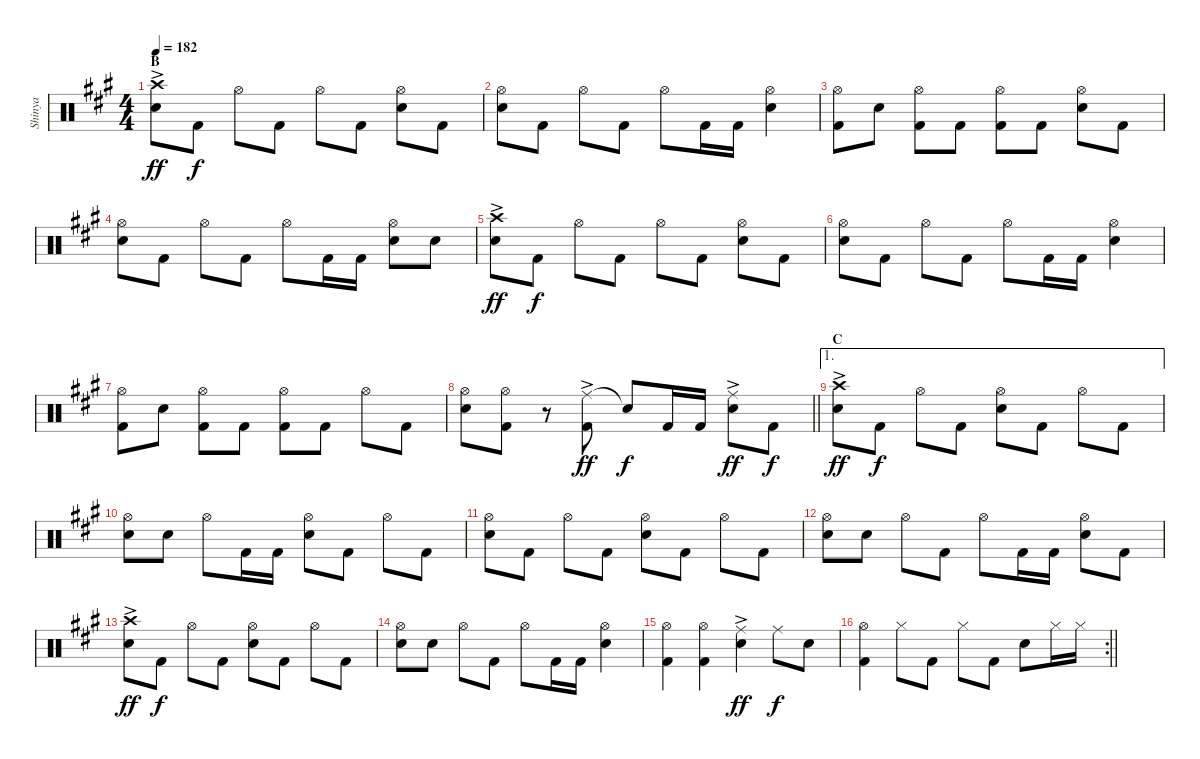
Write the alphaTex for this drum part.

\track ("Shinya" "Shinya") {instrument percussion}
\staff {score}
\articulation defaults
\ts (4 4)
\section ("" "B")
\tempo 182
\clef neutral
\ks a
("Crash high (hit)"{ac} "Snare (hit) 2").8{dy ff} "Kick (hit) 2".8{dy f} "Hi-Hat (open)".8 "Kick (hit) 2".8 "Hi-Hat (open)".8 "Kick (hit) 2".8 ("Hi-Hat (open)" "Snare (hit) 2").8 "Kick (hit) 2".8 |
("Hi-Hat (open)" "Snare (hit) 2").8 "Kick (hit) 2".8 "Hi-Hat (open)".8 "Kick (hit) 2".8 "Hi-Hat (open)".8 "Kick (hit) 2".16 "Kick (hit) 2".16 ("Hi-Hat (open)" "Snare (hit) 2").4 |
("Hi-Hat (open)" "Kick (hit) 2").8 "Snare (hit) 2".8 ("Hi-Hat (open)" "Kick (hit) 2").8 "Kick (hit) 2".8 ("Hi-Hat (open)" "Kick (hit) 2").8 "Kick (hit) 2".8 ("Hi-Hat (open)" "Snare (hit) 2").8 "Kick (hit) 2".8 |
("Hi-Hat (open)" "Snare (hit) 2").8 "Kick (hit) 2".8 "Hi-Hat (open)".8 "Kick (hit) 2".8 "Hi-Hat (open)".8 "Kick (hit) 2".16 "Kick (hit) 2".16 ("Hi-Hat (open)" "Snare (hit) 2").8 "Snare (hit) 2".8 |
("Crash high (hit)"{ac} "Snare (hit) 2").8{dy ff} "Kick (hit) 2".8{dy f} "Hi-Hat (open)".8 "Kick (hit) 2".8 "Hi-Hat (open)".8 "Kick (hit) 2".8 ("Hi-Hat (open)" "Snare (hit) 2").8 "Kick (hit) 2".8 |
("Hi-Hat (open)" "Snare (hit) 2").8 "Kick (hit) 2".8 "Hi-Hat (open)".8 "Kick (hit) 2".8 "Hi-Hat (open)".8 "Kick (hit) 2".16 "Kick (hit) 2".16 ("Hi-Hat (open)" "Snare (hit) 2").4 |
("Hi-Hat (open)" "Kick (hit) 2").8 "Snare (hit) 2".8 ("Hi-Hat (open)" "Kick (hit) 2").8 "Kick (hit) 2".8 ("Hi-Hat (open)" "Kick (hit) 2").8 "Kick (hit) 2".8 "Hi-Hat (open)".8 "Kick (hit) 2".8 |
\barLineRight lightlight
("Hi-Hat (open)" "Snare (hit) 2").8 ("Hi-Hat (open)" "Kick (hit) 2").8 r.8 ("Ride (middle)"{ac} "Kick (hit) 2").8{dy ff} "Snare (hit)"{t}.8{dy f} "Kick (hit) 2".16 "Kick (hit) 2".16 ("Ride (middle)"{ac} "Snare (hit) 2").8{dy ff} "Kick (hit) 2".8{dy f} |
\ae 1
\section ("" "C")
("Crash high (hit)"{ac} "Snare (hit) 2").8{dy ff} "Kick (hit) 2".8{dy f} "Hi-Hat (open)".8 "Kick (hit) 2".8 ("Hi-Hat (open)" "Snare (hit) 2").8 "Kick (hit) 2".8 "Hi-Hat (open)".8 "Kick (hit) 2".8 |
("Hi-Hat (open)" "Snare (hit) 2").8 "Snare (hit) 2".8 "Hi-Hat (open)".8 "Kick (hit) 2".16 "Kick (hit) 2".16 ("Hi-Hat (open)" "Snare (hit) 2").8 "Kick (hit) 2".8 "Hi-Hat (open)".8 "Kick (hit) 2".8 |
("Hi-Hat (open)" "Snare (hit) 2").8 "Kick (hit) 2".8 "Hi-Hat (open)".8 "Kick (hit) 2".8 ("Hi-Hat (open)" "Snare (hit) 2").8 "Kick (hit) 2".8 "Hi-Hat (open)".8 "Kick (hit) 2".8 |
("Hi-Hat (open)" "Snare (hit) 2").8 "Snare (hit) 2".8 "Hi-Hat (open)".8 "Kick (hit) 2".8 "Hi-Hat (open)".8 "Kick (hit) 2".16 "Kick (hit) 2".16 ("Hi-Hat (open)" "Snare (hit) 2").8 "Kick (hit) 2".8 |
("Crash high (hit)"{ac} "Snare (hit) 2").8{dy ff} "Kick (hit) 2".8{dy f} "Hi-Hat (open)".8 "Kick (hit) 2".8 ("Hi-Hat (open)" "Snare (hit) 2").8 "Kick (hit) 2".8 "Hi-Hat (open)".8 "Kick (hit) 2".8 |
("Hi-Hat (open)" "Snare (hit) 2").8 "Snare (hit) 2".8 "Hi-Hat (open)".8 "Kick (hit) 2".8 "Hi-Hat (open)".8 "Kick (hit) 2".16 "Kick (hit) 2".16 ("Hi-Hat (open)" "Snare (hit) 2").4 |
("Hi-Hat (open)" "Kick (hit) 2").4 ("Hi-Hat (open)" "Kick (hit) 2").4 ("Ride (middle)"{ac} "Snare (hit) 2").4{dy ff} "Ride (middle)".8{dy f} "Snare (hit) 2".8 |
\rc 2
\barLineRight lightlight
("Hi-Hat (open)" "Kick (hit) 2").4 "Hi-Hat (closed)".8 "Kick (hit) 2".8 "Hi-Hat (closed)".8 "Kick (hit) 2".8 "Snare (hit) 2".8 "Hi-Hat (closed)".16 "Hi-Hat (closed)".16
